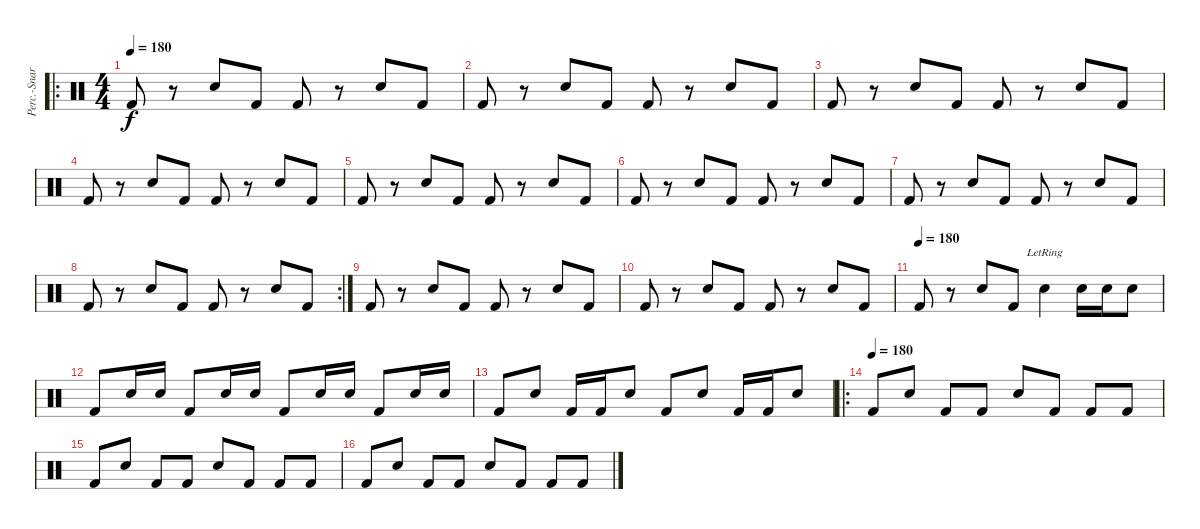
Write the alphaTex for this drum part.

\track ("Perc.-Snare/Kick" "Perc.-Snar") {instrument percussion}
\staff {score}
\articulation defaults
\ro
\ts (4 4)
\tempo 180
\clef neutral
\ks c "Kick (hit) 2".8{dy f}
r.8 "Snare (hit) 2".8 "Kick (hit) 2".8 "Kick (hit) 2".8 r.8 "Snare (hit) 2".8 "Kick (hit) 2".8 |
"Kick (hit) 2".8 r.8 "Snare (hit) 2".8 "Kick (hit) 2".8 "Kick (hit) 2".8 r.8 "Snare (hit) 2".8 "Kick (hit) 2".8 |
"Kick (hit) 2".8 r.8 "Snare (hit) 2".8 "Kick (hit) 2".8 "Kick (hit) 2".8 r.8 "Snare (hit) 2".8 "Kick (hit) 2".8 |
"Kick (hit) 2".8 r.8 "Snare (hit) 2".8 "Kick (hit) 2".8 "Kick (hit) 2".8 r.8 "Snare (hit) 2".8 "Kick (hit) 2".8 |
"Kick (hit) 2".8 r.8 "Snare (hit) 2".8 "Kick (hit) 2".8 "Kick (hit) 2".8 r.8 "Snare (hit) 2".8 "Kick (hit) 2".8 |
"Kick (hit) 2".8 r.8 "Snare (hit) 2".8 "Kick (hit) 2".8 "Kick (hit) 2".8 r.8 "Snare (hit) 2".8 "Kick (hit) 2".8 |
"Kick (hit) 2".8 r.8 "Snare (hit) 2".8 "Kick (hit) 2".8 "Kick (hit) 2".8 r.8 "Snare (hit) 2".8 "Kick (hit) 2".8 |
\rc 2 "Kick (hit) 2".8
r.8 "Snare (hit) 2".8 "Kick (hit) 2".8 "Kick (hit) 2".8 r.8 "Snare (hit) 2".8 "Kick (hit) 2".8 |
"Kick (hit) 2".8 r.8 "Snare (hit) 2".8 "Kick (hit) 2".8 "Kick (hit) 2".8 r.8 "Snare (hit) 2".8 "Kick (hit) 2".8 |
"Kick (hit) 2".8 r.8 "Snare (hit) 2".8 "Kick (hit) 2".8 "Kick (hit) 2".8 r.8 "Snare (hit) 2".8 "Kick (hit) 2".8 |
\tempo (180)
"Kick (hit) 2".8 r.8 "Snare (hit) 2".8 "Kick (hit) 2".8 "Snare (hit) 2"{lr}.4 "Snare (hit) 2".16 "Snare (hit) 2".16 "Snare (hit) 2".8 |
"Kick (hit) 2".8 "Snare (hit) 2".16 "Snare (hit) 2".16 "Kick (hit) 2".8 "Snare (hit) 2".16 "Snare (hit) 2".16 "Kick (hit) 2".8 "Snare (hit) 2".16 "Snare (hit) 2".16 "Kick (hit) 2".8 "Snare (hit) 2".16 "Snare (hit) 2".16 |
"Kick (hit) 2".8 "Snare (hit) 2".8 "Kick (hit) 2".16 "Kick (hit) 2".16 "Snare (hit) 2".8 "Kick (hit) 2".8 "Snare (hit) 2".8 "Kick (hit) 2".16 "Kick (hit) 2".16 "Snare (hit) 2".8 |
\ro
\tempo (180)
"Kick (hit) 2".8 "Snare (hit) 2".8 "Kick (hit) 2".8 "Kick (hit) 2".8 "Snare (hit) 2".8 "Kick (hit) 2".8 "Kick (hit) 2".8 "Kick (hit) 2".8 |
"Kick (hit) 2".8 "Snare (hit) 2".8 "Kick (hit) 2".8 "Kick (hit) 2".8 "Snare (hit) 2".8 "Kick (hit) 2".8 "Kick (hit) 2".8 "Kick (hit) 2".8 |
"Kick (hit) 2".8 "Snare (hit) 2".8 "Kick (hit) 2".8 "Kick (hit) 2".8 "Snare (hit) 2".8 "Kick (hit) 2".8 "Kick (hit) 2".8 "Kick (hit) 2".8
